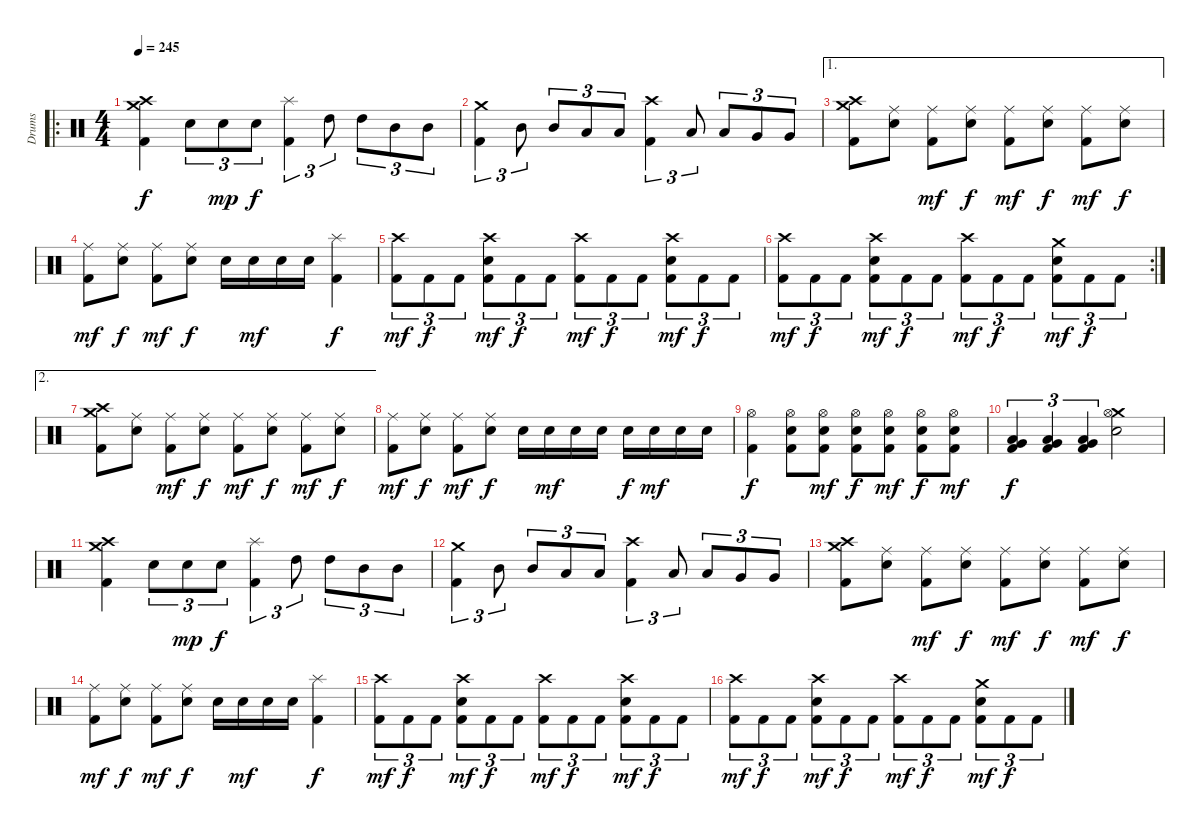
\track ("Drums" "Drums") {instrument percussion}
\staff {score}
\articulation defaults
\ro
\ts (4 4)
\tempo 245
\clef neutral
\ks c
("Crash high (hit)" "Crash medium (hit)" "Kick (hit) 2").4{dy f} "Electric Snare (hit)".8{tu (3 2)} "Electric Snare (hit)".8{tu (3 2) dy mp} "Electric Snare (hit)".8{tu (3 2) dy f} ("Splash (hit)" "Kick (hit) 2").4{tu (3 2)} "High Tom (hit)".8{tu (3 2)} "High Tom (hit)".8{tu (3 2)} "Mid Tom (hit)".8{tu (3 2)} "Mid Tom (hit)".8{tu (3 2)} |
("Crash medium (hit)" "Kick (hit) 2").4{tu (3 2)} "Mid Tom (hit)".8{tu (3 2)} "Mid Tom (hit)".8{tu (3 2)} "Low Tom (hit)".8{tu (3 2)} "Low Tom (hit)".8{tu (3 2)} ("Crash high (hit)" "Kick (hit) 2").4{tu (3 2)} "Low Tom (hit)".8{tu (3 2)} "Low Tom (hit)".8{tu (3 2)} "Very Low Tom (hit)".8{tu (3 2)} "Very Low Tom (hit)".8{tu (3 2)} |
\ae 1
("Crash high (hit)" "Crash medium (hit)" "Kick (hit) 2").8 ("Ride (middle)" "Electric Snare (hit)").8 ("Ride (middle)" "Kick (hit) 2").8{dy mf} ("Ride (middle)" "Electric Snare (hit)").8{dy f} ("Ride (middle)" "Kick (hit) 2").8{dy mf} ("Ride (middle)" "Electric Snare (hit)").8{dy f} ("Ride (middle)" "Kick (hit) 2").8{dy mf} ("Ride (middle)" "Electric Snare (hit)").8{dy f} |
("Ride (middle)" "Kick (hit) 2").8{dy mf} ("Ride (middle)" "Electric Snare (hit)").8{dy f} ("Ride (middle)" "Kick (hit) 2").8{dy mf} ("Ride (middle)" "Electric Snare (hit)").8{dy f} "Electric Snare (hit)".16 "Electric Snare (hit)".16{dy mf} "Electric Snare (hit)".16 "Electric Snare (hit)".16 ("Splash (hit)" "Kick (hit) 2").4{dy f} |
("Crash high (hit)" "Kick (hit) 2").8{tu (3 2) dy mf} "Kick (hit) 2".8{tu (3 2) dy f} "Kick (hit) 2".8{tu (3 2)} ("Crash high (hit)" "Electric Snare (hit)" "Kick (hit) 2").8{tu (3 2) dy mf} "Kick (hit) 2".8{tu (3 2) dy f} "Kick (hit) 2".8{tu (3 2)} ("Crash high (hit)" "Kick (hit) 2").8{tu (3 2) dy mf} "Kick (hit) 2".8{tu (3 2) dy f} "Kick (hit) 2".8{tu (3 2)} ("Crash high (hit)" "Electric Snare (hit)" "Kick (hit) 2").8{tu (3 2) dy mf} "Kick (hit) 2".8{tu (3 2) dy f} "Kick (hit) 2".8{tu (3 2)} |
\rc 2
("Crash high (hit)" "Kick (hit) 2").8{tu (3 2) dy mf} "Kick (hit) 2".8{tu (3 2) dy f} "Kick (hit) 2".8{tu (3 2)} ("Crash high (hit)" "Electric Snare (hit)" "Kick (hit) 2").8{tu (3 2) dy mf} "Kick (hit) 2".8{tu (3 2) dy f} "Kick (hit) 2".8{tu (3 2)} ("Crash high (hit)" "Kick (hit) 2").8{tu (3 2) dy mf} "Kick (hit) 2".8{tu (3 2) dy f} "Kick (hit) 2".8{tu (3 2)} ("Crash medium (hit)" "Electric Snare (hit)" "Kick (hit) 2").8{tu (3 2) dy mf} "Kick (hit) 2".8{tu (3 2) dy f} "Kick (hit) 2".8{tu (3 2)} |
\ae 2
("Crash high (hit)" "Crash medium (hit)" "Kick (hit) 2").8 ("Ride (middle)" "Electric Snare (hit)").8 ("Ride (middle)" "Kick (hit) 2").8{dy mf} ("Ride (middle)" "Electric Snare (hit)").8{dy f} ("Ride (middle)" "Kick (hit) 2").8{dy mf} ("Ride (middle)" "Electric Snare (hit)").8{dy f} ("Ride (middle)" "Kick (hit) 2").8{dy mf} ("Ride (middle)" "Electric Snare (hit)").8{dy f} |
("Ride (middle)" "Kick (hit) 2").8{dy mf} ("Ride (middle)" "Electric Snare (hit)").8{dy f} ("Ride (middle)" "Kick (hit) 2").8{dy mf} ("Ride (middle)" "Electric Snare (hit)").8{dy f} "Electric Snare (hit)".16 "Electric Snare (hit)".16{dy mf} "Electric Snare (hit)".16 "Electric Snare (hit)".16 "Electric Snare (hit)".16{dy f} "Electric Snare (hit)".16{dy mf} "Electric Snare (hit)".16 "Electric Snare (hit)".16 |
("Hi-Hat (open)" "Kick (hit) 2").4{dy f} ("Hi-Hat (open)" "Electric Snare (hit)" "Kick (hit) 2").8 ("Hi-Hat (open)" "Electric Snare (hit)" "Kick (hit) 2").8{dy mf} ("Hi-Hat (open)" "Electric Snare (hit)" "Kick (hit) 2").8{dy f} ("Hi-Hat (open)" "Electric Snare (hit)" "Kick (hit) 2").8{dy mf} ("Hi-Hat (open)" "Electric Snare (hit)" "Kick (hit) 2").8{dy f} ("Hi-Hat (open)" "Electric Snare (hit)" "Kick (hit) 2").8{dy mf} |
("Low Tom (hit)" "Very Low Tom (hit)" "Kick (hit) 2").4{tu (3 2) dy f} ("Low Tom (hit)" "Very Low Tom (hit)" "Kick (hit) 2").4{tu (3 2)} ("Low Tom (hit)" "Very Low Tom (hit)" "Kick (hit) 2").4{tu (3 2)} ("Crash medium (hit)" "Hi-Hat (open)" "Electric Snare (hit)").2 |
("Crash high (hit)" "Crash medium (hit)" "Kick (hit) 2").4 "Electric Snare (hit)".8{tu (3 2)} "Electric Snare (hit)".8{tu (3 2) dy mp} "Electric Snare (hit)".8{tu (3 2) dy f} ("Splash (hit)" "Kick (hit) 2").4{tu (3 2)} "High Tom (hit)".8{tu (3 2)} "High Tom (hit)".8{tu (3 2)} "Mid Tom (hit)".8{tu (3 2)} "Mid Tom (hit)".8{tu (3 2)} |
("Crash medium (hit)" "Kick (hit) 2").4{tu (3 2)} "Mid Tom (hit)".8{tu (3 2)} "Mid Tom (hit)".8{tu (3 2)} "Low Tom (hit)".8{tu (3 2)} "Low Tom (hit)".8{tu (3 2)} ("Crash high (hit)" "Kick (hit) 2").4{tu (3 2)} "Low Tom (hit)".8{tu (3 2)} "Low Tom (hit)".8{tu (3 2)} "Very Low Tom (hit)".8{tu (3 2)} "Very Low Tom (hit)".8{tu (3 2)} |
("Crash high (hit)" "Crash medium (hit)" "Kick (hit) 2").8 ("Ride (middle)" "Electric Snare (hit)").8 ("Ride (middle)" "Kick (hit) 2").8{dy mf} ("Ride (middle)" "Electric Snare (hit)").8{dy f} ("Ride (middle)" "Kick (hit) 2").8{dy mf} ("Ride (middle)" "Electric Snare (hit)").8{dy f} ("Ride (middle)" "Kick (hit) 2").8{dy mf} ("Ride (middle)" "Electric Snare (hit)").8{dy f} |
("Ride (middle)" "Kick (hit) 2").8{dy mf} ("Ride (middle)" "Electric Snare (hit)").8{dy f} ("Ride (middle)" "Kick (hit) 2").8{dy mf} ("Ride (middle)" "Electric Snare (hit)").8{dy f} "Electric Snare (hit)".16 "Electric Snare (hit)".16{dy mf} "Electric Snare (hit)".16 "Electric Snare (hit)".16 ("Splash (hit)" "Kick (hit) 2").4{dy f} |
("Crash high (hit)" "Kick (hit) 2").8{tu (3 2) dy mf} "Kick (hit) 2".8{tu (3 2) dy f} "Kick (hit) 2".8{tu (3 2)} ("Crash high (hit)" "Electric Snare (hit)" "Kick (hit) 2").8{tu (3 2) dy mf} "Kick (hit) 2".8{tu (3 2) dy f} "Kick (hit) 2".8{tu (3 2)} ("Crash high (hit)" "Kick (hit) 2").8{tu (3 2) dy mf} "Kick (hit) 2".8{tu (3 2) dy f} "Kick (hit) 2".8{tu (3 2)} ("Crash high (hit)" "Electric Snare (hit)" "Kick (hit) 2").8{tu (3 2) dy mf} "Kick (hit) 2".8{tu (3 2) dy f} "Kick (hit) 2".8{tu (3 2)} |
("Crash high (hit)" "Kick (hit) 2").8{tu (3 2) dy mf} "Kick (hit) 2".8{tu (3 2) dy f} "Kick (hit) 2".8{tu (3 2)} ("Crash high (hit)" "Electric Snare (hit)" "Kick (hit) 2").8{tu (3 2) dy mf} "Kick (hit) 2".8{tu (3 2) dy f} "Kick (hit) 2".8{tu (3 2)} ("Crash high (hit)" "Kick (hit) 2").8{tu (3 2) dy mf} "Kick (hit) 2".8{tu (3 2) dy f} "Kick (hit) 2".8{tu (3 2)} ("Crash medium (hit)" "Electric Snare (hit)" "Kick (hit) 2").8{tu (3 2) dy mf} "Kick (hit) 2".8{tu (3 2) dy f} "Kick (hit) 2".8{tu (3 2)}
